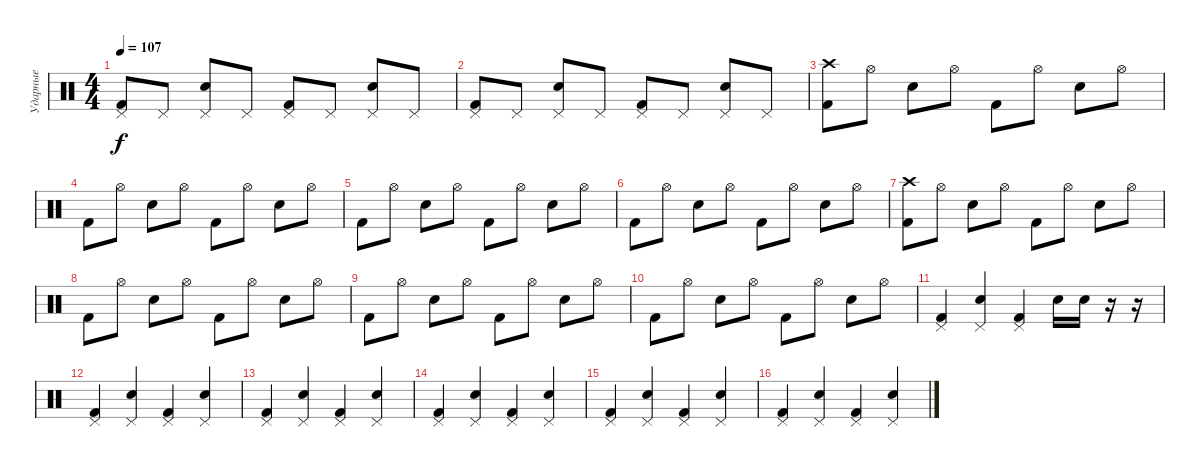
\track ("Ударные" "Ударные") {instrument percussion}
\staff {score}
\articulation defaults
\ts (4 4)
\tempo 107
\clef neutral
\ks c
("Pedal Hi-Hat (hit)" "Kick (hit) 2").8{dy f} "Pedal Hi-Hat (hit)".8 ("Pedal Hi-Hat (hit)" "Snare (hit) 2").8 "Pedal Hi-Hat (hit)".8 ("Pedal Hi-Hat (hit)" "Kick (hit) 2").8 "Pedal Hi-Hat (hit)".8 ("Pedal Hi-Hat (hit)" "Snare (hit) 2").8 "Pedal Hi-Hat (hit)".8 |
("Pedal Hi-Hat (hit)" "Kick (hit) 2").8 "Pedal Hi-Hat (hit)".8 ("Pedal Hi-Hat (hit)" "Snare (hit) 2").8 "Pedal Hi-Hat (hit)".8 ("Pedal Hi-Hat (hit)" "Kick (hit) 2").8 "Pedal Hi-Hat (hit)".8 ("Pedal Hi-Hat (hit)" "Snare (hit) 2").8 "Pedal Hi-Hat (hit)".8 |
("Kick (hit) 2" "Crash high (hit)").8 "Hi-Hat (open)".8 "Snare (hit) 2".8 "Hi-Hat (open)".8 "Kick (hit) 2".8 "Hi-Hat (open)".8 "Snare (hit) 2".8 "Hi-Hat (open)".8 |
"Kick (hit) 2".8 "Hi-Hat (open)".8 "Snare (hit) 2".8 "Hi-Hat (open)".8 "Kick (hit) 2".8 "Hi-Hat (open)".8 "Snare (hit) 2".8 "Hi-Hat (open)".8 |
"Kick (hit) 2".8 "Hi-Hat (open)".8 "Snare (hit) 2".8 "Hi-Hat (open)".8 "Kick (hit) 2".8 "Hi-Hat (open)".8 "Snare (hit) 2".8 "Hi-Hat (open)".8 |
"Kick (hit) 2".8 "Hi-Hat (open)".8 "Snare (hit) 2".8 "Hi-Hat (open)".8 "Kick (hit) 2".8 "Hi-Hat (open)".8 "Snare (hit) 2".8 "Hi-Hat (open)".8 |
("Kick (hit) 2" "Crash high (hit)").8 "Hi-Hat (open)".8 "Snare (hit) 2".8 "Hi-Hat (open)".8 "Kick (hit) 2".8 "Hi-Hat (open)".8 "Snare (hit) 2".8 "Hi-Hat (open)".8 |
"Kick (hit) 2".8 "Hi-Hat (open)".8 "Snare (hit) 2".8 "Hi-Hat (open)".8 "Kick (hit) 2".8 "Hi-Hat (open)".8 "Snare (hit) 2".8 "Hi-Hat (open)".8 |
"Kick (hit) 2".8 "Hi-Hat (open)".8 "Snare (hit) 2".8 "Hi-Hat (open)".8 "Kick (hit) 2".8 "Hi-Hat (open)".8 "Snare (hit) 2".8 "Hi-Hat (open)".8 |
"Kick (hit) 2".8 "Hi-Hat (open)".8 "Snare (hit) 2".8 "Hi-Hat (open)".8 "Kick (hit) 2".8 "Hi-Hat (open)".8 "Snare (hit) 2".8 "Hi-Hat (open)".8 |
("Pedal Hi-Hat (hit)" "Kick (hit) 2").4 ("Pedal Hi-Hat (hit)" "Snare (hit) 2").4 ("Pedal Hi-Hat (hit)" "Kick (hit) 2").4 "Snare (hit) 2".16 "Snare (hit) 2".16 r.16 r.16 |
("Pedal Hi-Hat (hit)" "Kick (hit) 2").4 ("Pedal Hi-Hat (hit)" "Snare (hit) 2").4 ("Pedal Hi-Hat (hit)" "Kick (hit) 2").4 ("Pedal Hi-Hat (hit)" "Snare (hit) 2").4 |
("Pedal Hi-Hat (hit)" "Kick (hit) 2").4 ("Pedal Hi-Hat (hit)" "Snare (hit) 2").4 ("Pedal Hi-Hat (hit)" "Kick (hit) 2").4 ("Pedal Hi-Hat (hit)" "Snare (hit) 2").4 |
("Pedal Hi-Hat (hit)" "Kick (hit) 2").4 ("Pedal Hi-Hat (hit)" "Snare (hit) 2").4 ("Pedal Hi-Hat (hit)" "Kick (hit) 2").4 ("Pedal Hi-Hat (hit)" "Snare (hit) 2").4 |
("Pedal Hi-Hat (hit)" "Kick (hit) 2").4 ("Pedal Hi-Hat (hit)" "Snare (hit) 2").4 ("Pedal Hi-Hat (hit)" "Kick (hit) 2").4 ("Pedal Hi-Hat (hit)" "Snare (hit) 2").4 |
("Pedal Hi-Hat (hit)" "Kick (hit) 2").4 ("Pedal Hi-Hat (hit)" "Snare (hit) 2").4 ("Pedal Hi-Hat (hit)" "Kick (hit) 2").4 ("Pedal Hi-Hat (hit)" "Snare (hit) 2").4
